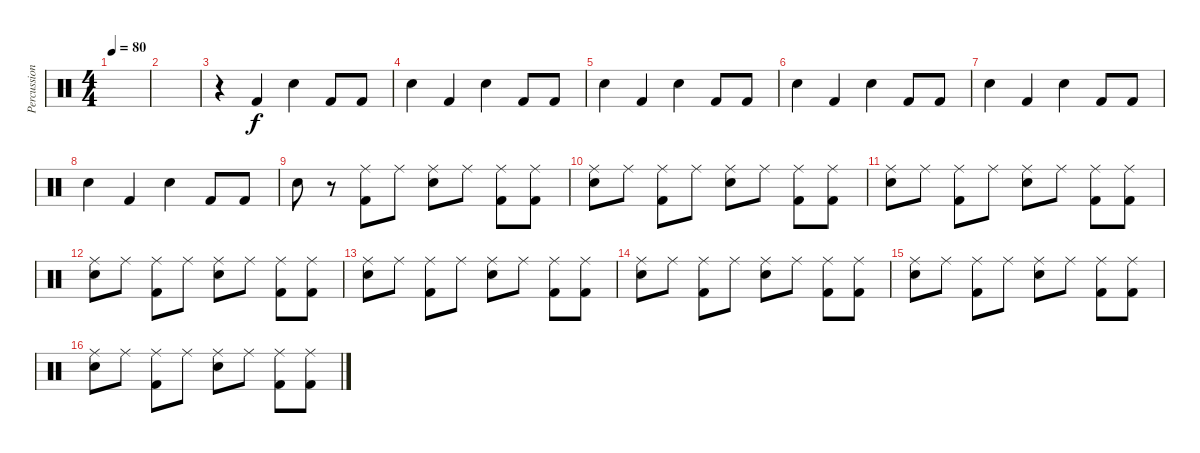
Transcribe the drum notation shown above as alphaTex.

\track ("Percussions" "Percussion") {instrument percussion}
\staff {score}
\articulation defaults
\ts (4 4)
\tempo 80
\clef neutral
\ks c
|
|
r.4 "Kick (hit) 2".4 "Snare (hit) 2".4 "Kick (hit) 2".8 "Kick (hit) 2".8 |
"Snare (hit) 2".4 "Kick (hit) 2".4 "Snare (hit) 2".4 "Kick (hit) 2".8 "Kick (hit) 2".8 |
"Snare (hit) 2".4 "Kick (hit) 2".4 "Snare (hit) 2".4 "Kick (hit) 2".8 "Kick (hit) 2".8 |
"Snare (hit) 2".4 "Kick (hit) 2".4 "Snare (hit) 2".4 "Kick (hit) 2".8 "Kick (hit) 2".8 |
"Snare (hit) 2".4 "Kick (hit) 2".4 "Snare (hit) 2".4 "Kick (hit) 2".8 "Kick (hit) 2".8 |
"Snare (hit) 2".4 "Kick (hit) 2".4 "Snare (hit) 2".4 "Kick (hit) 2".8 "Kick (hit) 2".8 |
"Snare (hit) 2".8 r.8 ("Ride (middle)" "Kick (hit) 2").8 "Ride (middle)".8 ("Ride (middle)" "Snare (hit) 2").8 "Ride (middle)".8 ("Ride (middle)" "Kick (hit) 2").8 ("Ride (middle)" "Kick (hit) 2").8 |
("Ride (middle)" "Snare (hit) 2").8 "Ride (middle)".8 ("Ride (middle)" "Kick (hit) 2").8 "Ride (middle)".8 ("Ride (middle)" "Snare (hit) 2").8 "Ride (middle)".8 ("Ride (middle)" "Kick (hit) 2").8 ("Ride (middle)" "Kick (hit) 2").8 |
("Ride (middle)" "Snare (hit) 2").8 "Ride (middle)".8 ("Ride (middle)" "Kick (hit) 2").8 "Ride (middle)".8 ("Ride (middle)" "Snare (hit) 2").8 "Ride (middle)".8 ("Ride (middle)" "Kick (hit) 2").8 ("Ride (middle)" "Kick (hit) 2").8 |
("Ride (middle)" "Snare (hit) 2").8 "Ride (middle)".8 ("Ride (middle)" "Kick (hit) 2").8 "Ride (middle)".8 ("Ride (middle)" "Snare (hit) 2").8 "Ride (middle)".8 ("Ride (middle)" "Kick (hit) 2").8 ("Ride (middle)" "Kick (hit) 2").8 |
("Ride (middle)" "Snare (hit) 2").8 "Ride (middle)".8 ("Ride (middle)" "Kick (hit) 2").8 "Ride (middle)".8 ("Ride (middle)" "Snare (hit) 2").8 "Ride (middle)".8 ("Ride (middle)" "Kick (hit) 2").8 ("Ride (middle)" "Kick (hit) 2").8 |
("Ride (middle)" "Snare (hit) 2").8 "Ride (middle)".8 ("Ride (middle)" "Kick (hit) 2").8 "Ride (middle)".8 ("Ride (middle)" "Snare (hit) 2").8 "Ride (middle)".8 ("Ride (middle)" "Kick (hit) 2").8 ("Ride (middle)" "Kick (hit) 2").8 |
("Ride (middle)" "Snare (hit) 2").8 "Ride (middle)".8 ("Ride (middle)" "Kick (hit) 2").8 "Ride (middle)".8 ("Ride (middle)" "Snare (hit) 2").8 "Ride (middle)".8 ("Ride (middle)" "Kick (hit) 2").8 ("Ride (middle)" "Kick (hit) 2").8 |
("Ride (middle)" "Snare (hit) 2").8 "Ride (middle)".8 ("Ride (middle)" "Kick (hit) 2").8 "Ride (middle)".8 ("Ride (middle)" "Snare (hit) 2").8 "Ride (middle)".8 ("Ride (middle)" "Kick (hit) 2").8 ("Ride (middle)" "Kick (hit) 2").8
